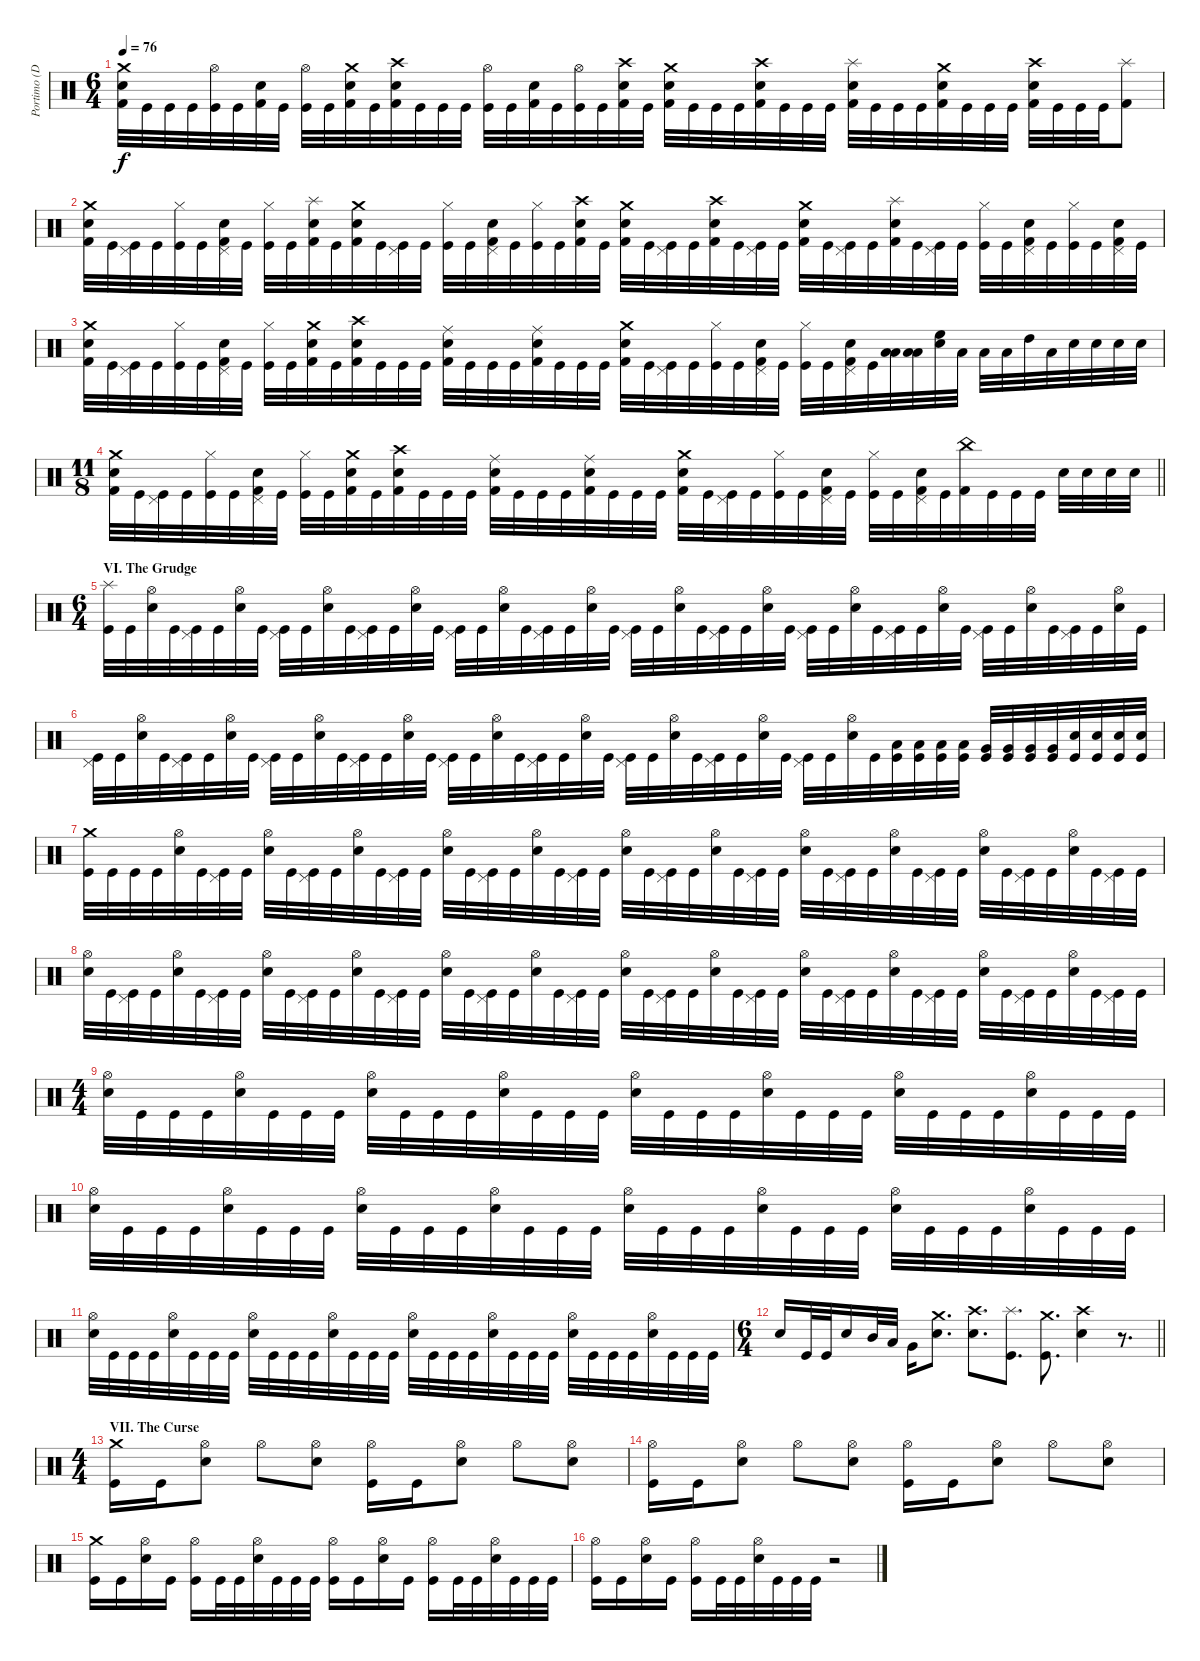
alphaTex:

\track ("Portimo (Drums)" "Portimo (D") {mute instrument percussion}
\staff {score}
\articulation defaults
\ts (6 4)
\tempo 76
\clef neutral
\ks c
("Crash medium (hit)" "Snare (hit) 2" "Kick (hit) 2").32{dy f} "Kick (hit)".32 "Kick (hit)".32 "Kick (hit)".32 ("Hi-Hat (open)" "Kick (hit)").32 "Kick (hit)".32 ("Snare (hit) 2" "Kick (hit) 2").32 "Kick (hit)".32 ("Hi-Hat (open)" "Kick (hit)").32 "Kick (hit)".32 ("Crash medium (hit)" "Snare (hit) 2" "Kick (hit) 2").32 "Kick (hit)".32 ("Crash high (hit)" "Snare (hit) 2" "Kick (hit) 2").32 "Kick (hit)".32 "Kick (hit)".32 "Kick (hit)".32 ("Hi-Hat (open)" "Kick (hit)").32 "Kick (hit)".32 ("Snare (hit) 2" "Kick (hit) 2").32 "Kick (hit)".32 ("Hi-Hat (open)" "Kick (hit)").32 "Kick (hit)".32 ("Crash high (hit)" "Snare (hit) 2" "Kick (hit) 2").32 "Kick (hit)".32 ("Crash medium (hit)" "Snare (hit) 2" "Kick (hit) 2").32 "Kick (hit)".32 "Kick (hit)".32 "Kick (hit)".32 ("Crash high (hit)" "Snare (hit) 2" "Kick (hit) 2").32 "Kick (hit)".32 "Kick (hit)".32 "Kick (hit)".32 ("Splash (hit)" "Snare (hit) 2" "Kick (hit) 2").32 "Kick (hit)".32 "Kick (hit)".32 "Kick (hit)".32 ("Crash medium (hit)" "Snare (hit) 2" "Kick (hit) 2").32 "Kick (hit)".32 "Kick (hit)".32 "Kick (hit)".32 ("Crash high (hit)" "Snare (hit) 2" "Kick (hit) 2").32 "Kick (hit)".32 "Kick (hit)".32 "Kick (hit)".32 ("Splash (hit)" "Kick (hit) 2").8 |
("Crash medium (hit)" "Snare (hit) 2" "Kick (hit) 2").32 "Kick (hit)".32 ("Pedal Hi-Hat (hit)" "Kick (hit)").32 "Kick (hit)".32 ("Hi-Hat (closed)" "Kick (hit)").32 "Kick (hit)".32 ("Pedal Hi-Hat (hit)" "Snare (hit) 2" "Kick (hit) 2").32 "Kick (hit)".32 ("Hi-Hat (closed)" "Kick (hit)").32 "Kick (hit)".32 ("Splash (hit)" "Snare (hit) 2" "Kick (hit) 2").32 "Kick (hit)".32 ("Crash medium (hit)" "Snare (hit) 2" "Kick (hit) 2").32 "Kick (hit)".32 ("Pedal Hi-Hat (hit)" "Kick (hit)").32 "Kick (hit)".32 ("Hi-Hat (closed)" "Kick (hit)").32 "Kick (hit)".32 ("Pedal Hi-Hat (hit)" "Snare (hit) 2" "Kick (hit) 2").32 "Kick (hit)".32 ("Hi-Hat (closed)" "Kick (hit)").32 "Kick (hit)".32 ("Crash high (hit)" "Snare (hit) 2" "Kick (hit) 2").32 "Kick (hit)".32 ("Crash medium (hit)" "Snare (hit) 2" "Kick (hit) 2").32 "Kick (hit)".32 ("Pedal Hi-Hat (hit)" "Kick (hit)").32 "Kick (hit)".32 ("Crash high (hit)" "Snare (hit) 2" "Kick (hit) 2").32 "Kick (hit)".32 ("Pedal Hi-Hat (hit)" "Kick (hit)").32 "Kick (hit)".32 ("Crash medium (hit)" "Snare (hit) 2" "Kick (hit) 2").32 "Kick (hit)".32 ("Pedal Hi-Hat (hit)" "Kick (hit)").32 "Kick (hit)".32 ("Splash (hit)" "Snare (hit) 2" "Kick (hit) 2").32 "Kick (hit)".32 ("Pedal Hi-Hat (hit)" "Kick (hit)").32 "Kick (hit)".32 ("Hi-Hat (closed)" "Kick (hit)").32 "Kick (hit)".32 ("Pedal Hi-Hat (hit)" "Snare (hit) 2" "Kick (hit) 2").32 "Kick (hit)".32 ("Hi-Hat (closed)" "Kick (hit)").32 "Kick (hit)".32 ("Pedal Hi-Hat (hit)" "Snare (hit) 2" "Kick (hit) 2").32 "Kick (hit)".32 |
("Crash medium (hit)" "Snare (hit) 2" "Kick (hit) 2").32 "Kick (hit)".32 ("Pedal Hi-Hat (hit)" "Kick (hit)").32 "Kick (hit)".32 ("Hi-Hat (closed)" "Kick (hit)").32 "Kick (hit)".32 ("Pedal Hi-Hat (hit)" "Snare (hit) 2" "Kick (hit) 2").32 "Kick (hit)".32 ("Hi-Hat (closed)" "Kick (hit)").32 "Kick (hit)".32 ("Crash medium (hit)" "Snare (hit) 2" "Kick (hit) 2").32 "Kick (hit)".32 ("Crash high (hit)" "Snare (hit) 2" "Kick (hit) 2").32 "Kick (hit)".32 "Kick (hit)".32 "Kick (hit)".32 ("Ride (middle)" "Snare (hit) 2" "Kick (hit) 2").32 "Kick (hit)".32 "Kick (hit)".32 "Kick (hit)".32 ("Ride (middle)" "Snare (hit) 2" "Kick (hit) 2").32 "Kick (hit)".32 "Kick (hit)".32 "Kick (hit)".32 ("Crash medium (hit)" "Snare (hit) 2" "Kick (hit) 2").32 "Kick (hit)".32 ("Pedal Hi-Hat (hit)" "Kick (hit)").32 "Kick (hit)".32 ("Hi-Hat (closed)" "Kick (hit)").32 "Kick (hit)".32 ("Pedal Hi-Hat (hit)" "Snare (hit) 2" "Kick (hit) 2").32 "Kick (hit)".32 ("Hi-Hat (closed)" "Kick (hit)").32 "Kick (hit)".32 ("Pedal Hi-Hat (hit)" "Snare (hit) 2" "Kick (hit) 2").32 "Kick (hit)".32 ("Low Floor Tom (hit)" "Low Tom (hit)").32 ("Low Floor Tom (hit)" "Low Tom (hit)").32 ("Electric Snare (hit)" "High Floor Tom (hit)").32 "Low Tom (hit)".32 "Low Tom (hit)".32 "Low Tom (hit)".32 "High Tom (hit)".32 "Low Tom (hit)".32 "Snare (hit) 2".32 "Snare (hit) 2".32 "Snare (hit) 2".32 "Snare (hit) 2".32 |
\ts (11 8)
\barLineRight lightlight
("Crash medium (hit)" "Snare (hit) 2" "Kick (hit) 2").32 "Kick (hit)".32 ("Pedal Hi-Hat (hit)" "Kick (hit)").32 "Kick (hit)".32 ("Hi-Hat (closed)" "Kick (hit)").32 "Kick (hit)".32 ("Pedal Hi-Hat (hit)" "Snare (hit) 2" "Kick (hit) 2").32 "Kick (hit)".32 ("Hi-Hat (closed)" "Kick (hit)").32 "Kick (hit)".32 ("Crash medium (hit)" "Snare (hit) 2" "Kick (hit) 2").32 "Kick (hit)".32 ("Crash high (hit)" "Snare (hit) 2" "Kick (hit) 2").32 "Kick (hit)".32 "Kick (hit)".32 "Kick (hit)".32 ("Ride (middle)" "Snare (hit) 2" "Kick (hit) 2").32 "Kick (hit)".32 "Kick (hit)".32 "Kick (hit)".32 ("Ride (middle)" "Snare (hit) 2" "Kick (hit) 2").32 "Kick (hit)".32 "Kick (hit)".32 "Kick (hit)".32 ("Crash medium (hit)" "Snare (hit) 2" "Kick (hit) 2").32 "Kick (hit)".32 ("Pedal Hi-Hat (hit)" "Kick (hit)").32 "Kick (hit)".32 ("Hi-Hat (closed)" "Kick (hit)").32 "Kick (hit)".32 ("Pedal Hi-Hat (hit)" "Snare (hit) 2" "Kick (hit) 2").32 "Kick (hit)".32 ("Hi-Hat (closed)" "Kick (hit)").32 "Kick (hit)".32 ("Pedal Hi-Hat (hit)" "Snare (hit) 2" "Kick (hit) 2").32 "Kick (hit)".32 ("China (hit)" "Kick (hit) 2").32 "Kick (hit)".32 "Kick (hit)".32 "Kick (hit)".32 "Snare (hit) 2".32 "Snare (hit) 2".32 "Snare (hit) 2".32 "Snare (hit) 2".32 |
\ts (6 4)
\section ("" "VI. The Grudge")
("Splash (hit)" "Kick (hit)").32 "Kick (hit)".32 ("Hi-Hat (open)" "Snare (hit) 2").32 "Kick (hit)".32 ("Pedal Hi-Hat (hit)" "Kick (hit)").32 "Kick (hit)".32 ("Hi-Hat (open)" "Snare (hit) 2").32 "Kick (hit)".32 ("Pedal Hi-Hat (hit)" "Kick (hit)").32 "Kick (hit)".32 ("Hi-Hat (open)" "Snare (hit) 2").32 "Kick (hit)".32 ("Pedal Hi-Hat (hit)" "Kick (hit)").32 "Kick (hit)".32 ("Hi-Hat (open)" "Snare (hit) 2").32 "Kick (hit)".32 ("Pedal Hi-Hat (hit)" "Kick (hit)").32 "Kick (hit)".32 ("Hi-Hat (open)" "Snare (hit) 2").32 "Kick (hit)".32 ("Pedal Hi-Hat (hit)" "Kick (hit)").32 "Kick (hit)".32 ("Hi-Hat (open)" "Snare (hit) 2").32 "Kick (hit)".32 ("Pedal Hi-Hat (hit)" "Kick (hit)").32 "Kick (hit)".32 ("Hi-Hat (open)" "Snare (hit) 2").32 "Kick (hit)".32 ("Pedal Hi-Hat (hit)" "Kick (hit)").32 "Kick (hit)".32 ("Hi-Hat (open)" "Snare (hit) 2").32 "Kick (hit)".32 ("Pedal Hi-Hat (hit)" "Kick (hit)").32 "Kick (hit)".32 ("Hi-Hat (open)" "Snare (hit) 2").32 "Kick (hit)".32 ("Pedal Hi-Hat (hit)" "Kick (hit)").32 "Kick (hit)".32 ("Hi-Hat (open)" "Snare (hit) 2").32 "Kick (hit)".32 ("Pedal Hi-Hat (hit)" "Kick (hit)").32 "Kick (hit)".32 ("Hi-Hat (open)" "Snare (hit) 2").32 "Kick (hit)".32 ("Pedal Hi-Hat (hit)" "Kick (hit)").32 "Kick (hit)".32 ("Hi-Hat (open)" "Snare (hit) 2").32 "Kick (hit)".32 |
("Pedal Hi-Hat (hit)" "Kick (hit)").32 "Kick (hit)".32 ("Hi-Hat (open)" "Snare (hit) 2").32 "Kick (hit)".32 ("Pedal Hi-Hat (hit)" "Kick (hit)").32 "Kick (hit)".32 ("Hi-Hat (open)" "Snare (hit) 2").32 "Kick (hit)".32 ("Pedal Hi-Hat (hit)" "Kick (hit)").32 "Kick (hit)".32 ("Hi-Hat (open)" "Snare (hit) 2").32 "Kick (hit)".32 ("Pedal Hi-Hat (hit)" "Kick (hit)").32 "Kick (hit)".32 ("Hi-Hat (open)" "Snare (hit) 2").32 "Kick (hit)".32 ("Pedal Hi-Hat (hit)" "Kick (hit)").32 "Kick (hit)".32 ("Hi-Hat (open)" "Snare (hit) 2").32 "Kick (hit)".32 ("Pedal Hi-Hat (hit)" "Kick (hit)").32 "Kick (hit)".32 ("Hi-Hat (open)" "Snare (hit) 2").32 "Kick (hit)".32 ("Pedal Hi-Hat (hit)" "Kick (hit)").32 "Kick (hit)".32 ("Hi-Hat (open)" "Snare (hit) 2").32 "Kick (hit)".32 ("Pedal Hi-Hat (hit)" "Kick (hit)").32 "Kick (hit)".32 ("Hi-Hat (open)" "Snare (hit) 2").32 "Kick (hit)".32 ("Pedal Hi-Hat (hit)" "Kick (hit)").32 "Kick (hit)".32 ("Hi-Hat (open)" "Snare (hit) 2").32 "Kick (hit)".32 ("Low Tom (hit)" "Kick (hit)").32 ("Low Tom (hit)" "Kick (hit)").32 ("Low Tom (hit)" "Kick (hit)").32 ("Low Tom (hit)" "Kick (hit)").32 ("Very Low Tom (hit)" "Kick (hit)").32 ("Very Low Tom (hit)" "Kick (hit)").32 ("Very Low Tom (hit)" "Kick (hit)").32 ("Very Low Tom (hit)" "Kick (hit)").32 ("Snare (hit) 2" "Kick (hit)").32 ("Snare (hit) 2" "Kick (hit)").32 ("Snare (hit) 2" "Kick (hit)").32 ("Snare (hit) 2" "Kick (hit)").32 |
("Crash medium (hit)" "Kick (hit)").32 "Kick (hit)".32 "Kick (hit)".32 "Kick (hit)".32 ("Hi-Hat (open)" "Snare (hit) 2").32 "Kick (hit)".32 ("Pedal Hi-Hat (hit)" "Kick (hit)").32 "Kick (hit)".32 ("Hi-Hat (open)" "Snare (hit) 2").32 "Kick (hit)".32 ("Pedal Hi-Hat (hit)" "Kick (hit)").32 "Kick (hit)".32 ("Hi-Hat (open)" "Snare (hit) 2").32 "Kick (hit)".32 ("Pedal Hi-Hat (hit)" "Kick (hit)").32 "Kick (hit)".32 ("Hi-Hat (open)" "Snare (hit) 2").32 "Kick (hit)".32 ("Pedal Hi-Hat (hit)" "Kick (hit)").32 "Kick (hit)".32 ("Hi-Hat (open)" "Snare (hit) 2").32 "Kick (hit)".32 ("Pedal Hi-Hat (hit)" "Kick (hit)").32 "Kick (hit)".32 ("Hi-Hat (open)" "Snare (hit) 2").32 "Kick (hit)".32 ("Pedal Hi-Hat (hit)" "Kick (hit)").32 "Kick (hit)".32 ("Hi-Hat (open)" "Snare (hit) 2").32 "Kick (hit)".32 ("Pedal Hi-Hat (hit)" "Kick (hit)").32 "Kick (hit)".32 ("Hi-Hat (open)" "Snare (hit) 2").32 "Kick (hit)".32 ("Pedal Hi-Hat (hit)" "Kick (hit)").32 "Kick (hit)".32 ("Hi-Hat (open)" "Snare (hit) 2").32 "Kick (hit)".32 ("Pedal Hi-Hat (hit)" "Kick (hit)").32 "Kick (hit)".32 ("Hi-Hat (open)" "Snare (hit) 2").32 "Kick (hit)".32 ("Pedal Hi-Hat (hit)" "Kick (hit)").32 "Kick (hit)".32 ("Hi-Hat (open)" "Snare (hit) 2").32 "Kick (hit)".32 ("Pedal Hi-Hat (hit)" "Kick (hit)").32 "Kick (hit)".32 |
("Hi-Hat (open)" "Snare (hit) 2").32 "Kick (hit)".32 ("Pedal Hi-Hat (hit)" "Kick (hit)").32 "Kick (hit)".32 ("Hi-Hat (open)" "Snare (hit) 2").32 "Kick (hit)".32 ("Pedal Hi-Hat (hit)" "Kick (hit)").32 "Kick (hit)".32 ("Hi-Hat (open)" "Snare (hit) 2").32 "Kick (hit)".32 ("Pedal Hi-Hat (hit)" "Kick (hit)").32 "Kick (hit)".32 ("Hi-Hat (open)" "Snare (hit) 2").32 "Kick (hit)".32 ("Pedal Hi-Hat (hit)" "Kick (hit)").32 "Kick (hit)".32 ("Hi-Hat (open)" "Snare (hit) 2").32 "Kick (hit)".32 ("Pedal Hi-Hat (hit)" "Kick (hit)").32 "Kick (hit)".32 ("Hi-Hat (open)" "Snare (hit) 2").32 "Kick (hit)".32 ("Pedal Hi-Hat (hit)" "Kick (hit)").32 "Kick (hit)".32 ("Hi-Hat (open)" "Snare (hit) 2").32 "Kick (hit)".32 ("Pedal Hi-Hat (hit)" "Kick (hit)").32 "Kick (hit)".32 ("Hi-Hat (open)" "Snare (hit) 2").32 "Kick (hit)".32 ("Pedal Hi-Hat (hit)" "Kick (hit)").32 "Kick (hit)".32 ("Hi-Hat (open)" "Snare (hit) 2").32 "Kick (hit)".32 ("Pedal Hi-Hat (hit)" "Kick (hit)").32 "Kick (hit)".32 ("Hi-Hat (open)" "Snare (hit) 2").32 "Kick (hit)".32 ("Pedal Hi-Hat (hit)" "Kick (hit)").32 "Kick (hit)".32 ("Hi-Hat (open)" "Snare (hit) 2").32 "Kick (hit)".32 ("Pedal Hi-Hat (hit)" "Kick (hit)").32 "Kick (hit)".32 ("Hi-Hat (open)" "Snare (hit) 2").32 "Kick (hit)".32 ("Pedal Hi-Hat (hit)" "Kick (hit)").32 "Kick (hit)".32 |
\ts (4 4)
("Hi-Hat (open)" "Snare (hit) 2").32 "Kick (hit)".32 "Kick (hit)".32 "Kick (hit)".32 ("Hi-Hat (open)" "Snare (hit) 2").32 "Kick (hit)".32 "Kick (hit)".32 "Kick (hit)".32 ("Hi-Hat (open)" "Snare (hit) 2").32 "Kick (hit)".32 "Kick (hit)".32 "Kick (hit)".32 ("Hi-Hat (open)" "Snare (hit) 2").32 "Kick (hit)".32 "Kick (hit)".32 "Kick (hit)".32 ("Hi-Hat (open)" "Snare (hit) 2").32 "Kick (hit)".32 "Kick (hit)".32 "Kick (hit)".32 ("Hi-Hat (open)" "Snare (hit) 2").32 "Kick (hit)".32 "Kick (hit)".32 "Kick (hit)".32 ("Hi-Hat (open)" "Snare (hit) 2").32 "Kick (hit)".32 "Kick (hit)".32 "Kick (hit)".32 ("Hi-Hat (open)" "Snare (hit) 2").32 "Kick (hit)".32 "Kick (hit)".32 "Kick (hit)".32 |
("Hi-Hat (open)" "Snare (hit) 2").32 "Kick (hit)".32 "Kick (hit)".32 "Kick (hit)".32 ("Hi-Hat (open)" "Snare (hit) 2").32 "Kick (hit)".32 "Kick (hit)".32 "Kick (hit)".32 ("Hi-Hat (open)" "Snare (hit) 2").32 "Kick (hit)".32 "Kick (hit)".32 "Kick (hit)".32 ("Hi-Hat (open)" "Snare (hit) 2").32 "Kick (hit)".32 "Kick (hit)".32 "Kick (hit)".32 ("Hi-Hat (open)" "Snare (hit) 2").32 "Kick (hit)".32 "Kick (hit)".32 "Kick (hit)".32 ("Hi-Hat (open)" "Snare (hit) 2").32 "Kick (hit)".32 "Kick (hit)".32 "Kick (hit)".32 ("Hi-Hat (open)" "Snare (hit) 2").32 "Kick (hit)".32 "Kick (hit)".32 "Kick (hit)".32 ("Hi-Hat (open)" "Snare (hit) 2").32 "Kick (hit)".32 "Kick (hit)".32 "Kick (hit)".32 |
("Hi-Hat (open)" "Snare (hit) 2").32 "Kick (hit)".32 "Kick (hit)".32 "Kick (hit)".32 ("Hi-Hat (open)" "Snare (hit) 2").32 "Kick (hit)".32 "Kick (hit)".32 "Kick (hit)".32 ("Hi-Hat (open)" "Snare (hit) 2").32 "Kick (hit)".32 "Kick (hit)".32 "Kick (hit)".32 ("Hi-Hat (open)" "Snare (hit) 2").32 "Kick (hit)".32 "Kick (hit)".32 "Kick (hit)".32 ("Hi-Hat (open)" "Snare (hit) 2").32 "Kick (hit)".32 "Kick (hit)".32 "Kick (hit)".32 ("Hi-Hat (open)" "Snare (hit) 2").32 "Kick (hit)".32 "Kick (hit)".32 "Kick (hit)".32 ("Hi-Hat (open)" "Snare (hit) 2").32 "Kick (hit)".32 "Kick (hit)".32 "Kick (hit)".32 ("Hi-Hat (open)" "Snare (hit) 2").32 "Kick (hit)".32 "Kick (hit)".32 "Kick (hit)".32 |
\ts (6 4)
\barLineRight lightlight "Snare (hit) 2".16 "Kick (hit)".32 "Kick (hit)".32 "Snare (hit) 2".16 "Mid Tom (hit)".32 "Low Tom (hit)".32 "Very Low Tom (hit)".16
("Crash medium (hit)" "Snare (hit) 2").8{d} ("Crash high (hit)" "Snare (hit) 2").8{d} ("Splash (hit)" "Kick (hit)").8{d} ("Crash medium (hit)" "Kick (hit)").8{d} ("Crash high (hit)" "Snare (hit) 2").4 r.8{d} |
\ts (4 4)
\section ("" "VII. The Curse")
("Crash medium (hit)" "Kick (hit)").16 "Kick (hit)".16 ("Hi-Hat (open)" "Snare (hit) 2").8 "Hi-Hat (open)".8 ("Hi-Hat (open)" "Snare (hit) 2").8 ("Hi-Hat (open)" "Kick (hit)").16 "Kick (hit)".16 ("Hi-Hat (open)" "Snare (hit) 2").8 "Hi-Hat (open)".8 ("Hi-Hat (open)" "Snare (hit) 2").8 |
("Hi-Hat (open)" "Kick (hit)").16 "Kick (hit)".16 ("Hi-Hat (open)" "Snare (hit) 2").8 "Hi-Hat (open)".8 ("Hi-Hat (open)" "Snare (hit) 2").8 ("Hi-Hat (open)" "Kick (hit)").16 "Kick (hit)".16 ("Hi-Hat (open)" "Snare (hit) 2").8 "Hi-Hat (open)".8 ("Hi-Hat (open)" "Snare (hit) 2").8 |
("Crash medium (hit)" "Kick (hit)").16 "Kick (hit)".16 ("Hi-Hat (open)" "Snare (hit) 2").16 "Kick (hit)".16 ("Hi-Hat (open)" "Kick (hit)").16 "Kick (hit)".32 "Kick (hit)".32 ("Hi-Hat (open)" "Snare (hit) 2").32 "Kick (hit)".32 "Kick (hit)".32 "Kick (hit)".32 ("Hi-Hat (open)" "Kick (hit)").16 "Kick (hit)".16 ("Hi-Hat (open)" "Snare (hit) 2").16 "Kick (hit)".16 ("Hi-Hat (open)" "Kick (hit)").16 "Kick (hit)".32 "Kick (hit)".32 ("Hi-Hat (open)" "Snare (hit) 2").32 "Kick (hit)".32 "Kick (hit)".32 "Kick (hit)".32 |
("Hi-Hat (open)" "Kick (hit)").16 "Kick (hit)".16 ("Hi-Hat (open)" "Snare (hit) 2").16 "Kick (hit)".16 ("Hi-Hat (open)" "Kick (hit)").16 "Kick (hit)".32 "Kick (hit)".32 ("Hi-Hat (open)" "Snare (hit) 2").32 "Kick (hit)".32 "Kick (hit)".32 "Kick (hit)".32 r.2
